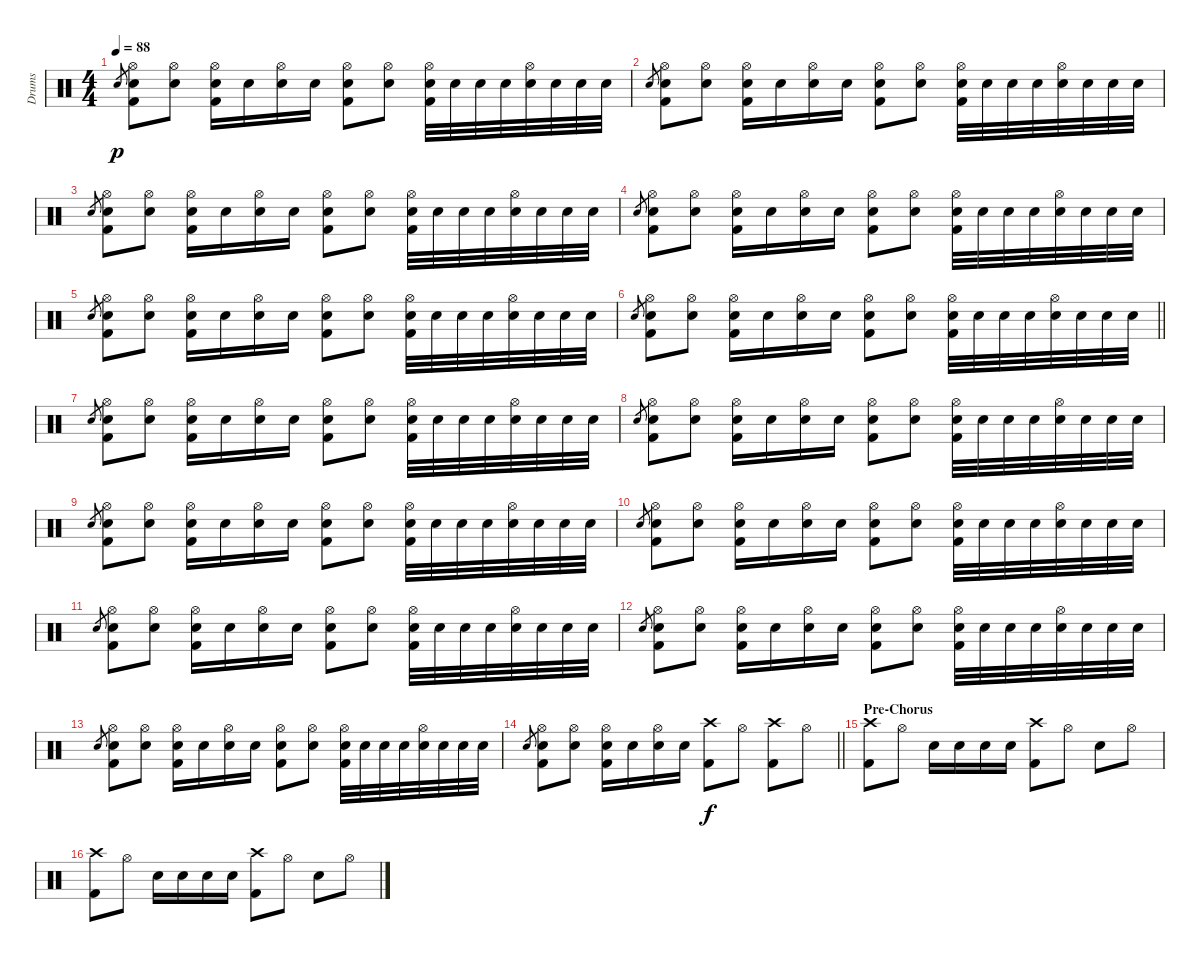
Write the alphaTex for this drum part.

\track ("Drums" "Drums") {instrument percussion}
\staff {score}
\articulation defaults
\ts (4 4)
\tempo 88
\clef neutral
\ks c "Snare (hit) 2".8{gr dy p}
("Hi-Hat (open)" "Snare (hit) 2" "Kick (hit) 2").8 ("Hi-Hat (open)" "Snare (hit) 2").8 ("Hi-Hat (open)" "Snare (hit) 2" "Kick (hit) 2").16 "Snare (hit) 2".16 ("Hi-Hat (open)" "Snare (hit) 2").16 "Snare (hit) 2".16 ("Hi-Hat (open)" "Snare (hit) 2" "Kick (hit) 2").8 ("Hi-Hat (open)" "Snare (hit) 2").8 ("Hi-Hat (open)" "Snare (hit) 2" "Kick (hit) 2").32 "Snare (hit) 2".32 "Snare (hit) 2".32 "Snare (hit) 2".32 ("Hi-Hat (open)" "Snare (hit) 2").32 "Snare (hit) 2".32 "Snare (hit) 2".32 "Snare (hit) 2".32 |
"Snare (hit) 2".8{gr} ("Hi-Hat (open)" "Snare (hit) 2" "Kick (hit) 2").8 ("Hi-Hat (open)" "Snare (hit) 2").8 ("Hi-Hat (open)" "Snare (hit) 2" "Kick (hit) 2").16 "Snare (hit) 2".16 ("Hi-Hat (open)" "Snare (hit) 2").16 "Snare (hit) 2".16 ("Hi-Hat (open)" "Snare (hit) 2" "Kick (hit) 2").8 ("Hi-Hat (open)" "Snare (hit) 2").8 ("Hi-Hat (open)" "Snare (hit) 2" "Kick (hit) 2").32 "Snare (hit) 2".32 "Snare (hit) 2".32 "Snare (hit) 2".32 ("Hi-Hat (open)" "Snare (hit) 2").32 "Snare (hit) 2".32 "Snare (hit) 2".32 "Snare (hit) 2".32 |
"Snare (hit) 2".8{gr} ("Hi-Hat (open)" "Snare (hit) 2" "Kick (hit) 2").8 ("Hi-Hat (open)" "Snare (hit) 2").8 ("Hi-Hat (open)" "Snare (hit) 2" "Kick (hit) 2").16 "Snare (hit) 2".16 ("Hi-Hat (open)" "Snare (hit) 2").16 "Snare (hit) 2".16 ("Hi-Hat (open)" "Snare (hit) 2" "Kick (hit) 2").8 ("Hi-Hat (open)" "Snare (hit) 2").8 ("Hi-Hat (open)" "Snare (hit) 2" "Kick (hit) 2").32 "Snare (hit) 2".32 "Snare (hit) 2".32 "Snare (hit) 2".32 ("Hi-Hat (open)" "Snare (hit) 2").32 "Snare (hit) 2".32 "Snare (hit) 2".32 "Snare (hit) 2".32 |
"Snare (hit) 2".8{gr} ("Hi-Hat (open)" "Snare (hit) 2" "Kick (hit) 2").8 ("Hi-Hat (open)" "Snare (hit) 2").8 ("Hi-Hat (open)" "Snare (hit) 2" "Kick (hit) 2").16 "Snare (hit) 2".16 ("Hi-Hat (open)" "Snare (hit) 2").16 "Snare (hit) 2".16 ("Hi-Hat (open)" "Snare (hit) 2" "Kick (hit) 2").8 ("Hi-Hat (open)" "Snare (hit) 2").8 ("Hi-Hat (open)" "Snare (hit) 2" "Kick (hit) 2").32 "Snare (hit) 2".32 "Snare (hit) 2".32 "Snare (hit) 2".32 ("Hi-Hat (open)" "Snare (hit) 2").32 "Snare (hit) 2".32 "Snare (hit) 2".32 "Snare (hit) 2".32 |
"Snare (hit) 2".8{gr} ("Hi-Hat (open)" "Snare (hit) 2" "Kick (hit) 2").8 ("Hi-Hat (open)" "Snare (hit) 2").8 ("Hi-Hat (open)" "Snare (hit) 2" "Kick (hit) 2").16 "Snare (hit) 2".16 ("Hi-Hat (open)" "Snare (hit) 2").16 "Snare (hit) 2".16 ("Hi-Hat (open)" "Snare (hit) 2" "Kick (hit) 2").8 ("Hi-Hat (open)" "Snare (hit) 2").8 ("Hi-Hat (open)" "Snare (hit) 2" "Kick (hit) 2").32 "Snare (hit) 2".32 "Snare (hit) 2".32 "Snare (hit) 2".32 ("Hi-Hat (open)" "Snare (hit) 2").32 "Snare (hit) 2".32 "Snare (hit) 2".32 "Snare (hit) 2".32 |
\barLineRight lightlight "Snare (hit) 2".8{gr}
("Hi-Hat (open)" "Snare (hit) 2" "Kick (hit) 2").8 ("Hi-Hat (open)" "Snare (hit) 2").8 ("Hi-Hat (open)" "Snare (hit) 2" "Kick (hit) 2").16 "Snare (hit) 2".16 ("Hi-Hat (open)" "Snare (hit) 2").16 "Snare (hit) 2".16 ("Hi-Hat (open)" "Snare (hit) 2" "Kick (hit) 2").8 ("Hi-Hat (open)" "Snare (hit) 2").8 ("Hi-Hat (open)" "Snare (hit) 2" "Kick (hit) 2").32 "Snare (hit) 2".32 "Snare (hit) 2".32 "Snare (hit) 2".32 ("Hi-Hat (open)" "Snare (hit) 2").32 "Snare (hit) 2".32 "Snare (hit) 2".32 "Snare (hit) 2".32 |
"Snare (hit) 2".8{gr} ("Hi-Hat (open)" "Snare (hit) 2" "Kick (hit) 2").8 ("Hi-Hat (open)" "Snare (hit) 2").8 ("Hi-Hat (open)" "Snare (hit) 2" "Kick (hit) 2").16 "Snare (hit) 2".16 ("Hi-Hat (open)" "Snare (hit) 2").16 "Snare (hit) 2".16 ("Hi-Hat (open)" "Snare (hit) 2" "Kick (hit) 2").8 ("Hi-Hat (open)" "Snare (hit) 2").8 ("Hi-Hat (open)" "Snare (hit) 2" "Kick (hit) 2").32 "Snare (hit) 2".32 "Snare (hit) 2".32 "Snare (hit) 2".32 ("Hi-Hat (open)" "Snare (hit) 2").32 "Snare (hit) 2".32 "Snare (hit) 2".32 "Snare (hit) 2".32 |
"Snare (hit) 2".8{gr} ("Hi-Hat (open)" "Snare (hit) 2" "Kick (hit) 2").8 ("Hi-Hat (open)" "Snare (hit) 2").8 ("Hi-Hat (open)" "Snare (hit) 2" "Kick (hit) 2").16 "Snare (hit) 2".16 ("Hi-Hat (open)" "Snare (hit) 2").16 "Snare (hit) 2".16 ("Hi-Hat (open)" "Snare (hit) 2" "Kick (hit) 2").8 ("Hi-Hat (open)" "Snare (hit) 2").8 ("Hi-Hat (open)" "Snare (hit) 2" "Kick (hit) 2").32 "Snare (hit) 2".32 "Snare (hit) 2".32 "Snare (hit) 2".32 ("Hi-Hat (open)" "Snare (hit) 2").32 "Snare (hit) 2".32 "Snare (hit) 2".32 "Snare (hit) 2".32 |
"Snare (hit) 2".8{gr} ("Hi-Hat (open)" "Snare (hit) 2" "Kick (hit) 2").8 ("Hi-Hat (open)" "Snare (hit) 2").8 ("Hi-Hat (open)" "Snare (hit) 2" "Kick (hit) 2").16 "Snare (hit) 2".16 ("Hi-Hat (open)" "Snare (hit) 2").16 "Snare (hit) 2".16 ("Hi-Hat (open)" "Snare (hit) 2" "Kick (hit) 2").8 ("Hi-Hat (open)" "Snare (hit) 2").8 ("Hi-Hat (open)" "Snare (hit) 2" "Kick (hit) 2").32 "Snare (hit) 2".32 "Snare (hit) 2".32 "Snare (hit) 2".32 ("Hi-Hat (open)" "Snare (hit) 2").32 "Snare (hit) 2".32 "Snare (hit) 2".32 "Snare (hit) 2".32 |
"Snare (hit) 2".8{gr} ("Hi-Hat (open)" "Snare (hit) 2" "Kick (hit) 2").8 ("Hi-Hat (open)" "Snare (hit) 2").8 ("Hi-Hat (open)" "Snare (hit) 2" "Kick (hit) 2").16 "Snare (hit) 2".16 ("Hi-Hat (open)" "Snare (hit) 2").16 "Snare (hit) 2".16 ("Hi-Hat (open)" "Snare (hit) 2" "Kick (hit) 2").8 ("Hi-Hat (open)" "Snare (hit) 2").8 ("Hi-Hat (open)" "Snare (hit) 2" "Kick (hit) 2").32 "Snare (hit) 2".32 "Snare (hit) 2".32 "Snare (hit) 2".32 ("Hi-Hat (open)" "Snare (hit) 2").32 "Snare (hit) 2".32 "Snare (hit) 2".32 "Snare (hit) 2".32 |
"Snare (hit) 2".8{gr} ("Hi-Hat (open)" "Snare (hit) 2" "Kick (hit) 2").8 ("Hi-Hat (open)" "Snare (hit) 2").8 ("Hi-Hat (open)" "Snare (hit) 2" "Kick (hit) 2").16 "Snare (hit) 2".16 ("Hi-Hat (open)" "Snare (hit) 2").16 "Snare (hit) 2".16 ("Hi-Hat (open)" "Snare (hit) 2" "Kick (hit) 2").8 ("Hi-Hat (open)" "Snare (hit) 2").8 ("Hi-Hat (open)" "Snare (hit) 2" "Kick (hit) 2").32 "Snare (hit) 2".32 "Snare (hit) 2".32 "Snare (hit) 2".32 ("Hi-Hat (open)" "Snare (hit) 2").32 "Snare (hit) 2".32 "Snare (hit) 2".32 "Snare (hit) 2".32 |
"Snare (hit) 2".8{gr} ("Hi-Hat (open)" "Snare (hit) 2" "Kick (hit) 2").8 ("Hi-Hat (open)" "Snare (hit) 2").8 ("Hi-Hat (open)" "Snare (hit) 2" "Kick (hit) 2").16 "Snare (hit) 2".16 ("Hi-Hat (open)" "Snare (hit) 2").16 "Snare (hit) 2".16 ("Hi-Hat (open)" "Snare (hit) 2" "Kick (hit) 2").8 ("Hi-Hat (open)" "Snare (hit) 2").8 ("Hi-Hat (open)" "Snare (hit) 2" "Kick (hit) 2").32 "Snare (hit) 2".32 "Snare (hit) 2".32 "Snare (hit) 2".32 ("Hi-Hat (open)" "Snare (hit) 2").32 "Snare (hit) 2".32 "Snare (hit) 2".32 "Snare (hit) 2".32 |
"Snare (hit) 2".8{gr} ("Hi-Hat (open)" "Snare (hit) 2" "Kick (hit) 2").8 ("Hi-Hat (open)" "Snare (hit) 2").8 ("Hi-Hat (open)" "Snare (hit) 2" "Kick (hit) 2").16 "Snare (hit) 2".16 ("Hi-Hat (open)" "Snare (hit) 2").16 "Snare (hit) 2".16 ("Hi-Hat (open)" "Snare (hit) 2" "Kick (hit) 2").8 ("Hi-Hat (open)" "Snare (hit) 2").8 ("Hi-Hat (open)" "Snare (hit) 2" "Kick (hit) 2").32 "Snare (hit) 2".32 "Snare (hit) 2".32 "Snare (hit) 2".32 ("Hi-Hat (open)" "Snare (hit) 2").32 "Snare (hit) 2".32 "Snare (hit) 2".32 "Snare (hit) 2".32 |
\barLineRight lightlight "Snare (hit) 2".8{gr}
("Hi-Hat (open)" "Snare (hit) 2" "Kick (hit) 2").8 ("Hi-Hat (open)" "Snare (hit) 2").8 ("Hi-Hat (open)" "Snare (hit) 2" "Kick (hit) 2").16 "Snare (hit) 2".16 ("Hi-Hat (open)" "Snare (hit) 2").16 "Snare (hit) 2".16 ("Crash high (hit)" "Kick (hit) 2").8{dy f} "Hi-Hat (open)".8 ("Crash high (hit)" "Kick (hit) 2").8 "Hi-Hat (open)".8 |
\section ("" "Pre-Chorus")
("Crash high (hit)" "Kick (hit) 2").8 "Hi-Hat (open)".8 "Snare (hit) 2".16 "Snare (hit) 2".16 "Snare (hit) 2".16 "Snare (hit) 2".16 ("Crash high (hit)" "Kick (hit) 2").8 "Hi-Hat (open)".8 "Snare (hit) 2".8 "Hi-Hat (open)".8 |
("Crash high (hit)" "Kick (hit) 2").8 "Hi-Hat (open)".8 "Snare (hit) 2".16 "Snare (hit) 2".16 "Snare (hit) 2".16 "Snare (hit) 2".16 ("Crash high (hit)" "Kick (hit) 2").8 "Hi-Hat (open)".8 "Snare (hit) 2".8 "Hi-Hat (open)".8
